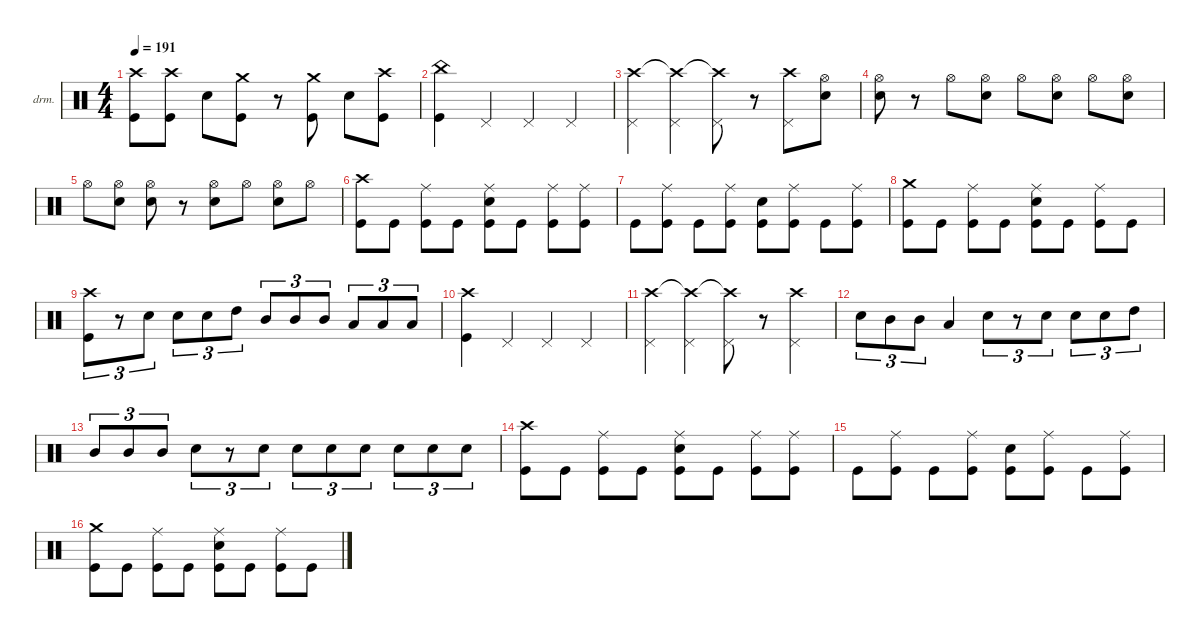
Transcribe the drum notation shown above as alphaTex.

\defaultSystemsLayout 4
\hideDynamics
\bracketExtendMode nobrackets
\firstSystemTrackNameOrientation horizontal
\otherSystemsTrackNameOrientation horizontal
\track ("Drumkit" "drm.") {instrument percussion}
\staff {score}
\articulation defaults
\ts (4 4)
\tempo 191
\clef neutral
\ks c
("Kick (hit)"{t} "Crash high (hit)").8{dy f beam Down} ("Crash high (hit)" "Kick (hit)").8{beam Down} "Snare (hit) 2".8{beam Down} ("Crash medium (hit)" "Kick (hit)").8{beam Down} r.8{beam Down} ("Crash medium (hit)" "Kick (hit)").8{beam Down} "Snare (hit) 2".8{beam Down} ("Crash high (hit)" "Kick (hit)").8{beam Down} |
("China (hit)" "Kick (hit)").4{beam Down} "Pedal Hi-Hat (hit)".4{beam Up} "Pedal Hi-Hat (hit)".4{beam Up} "Pedal Hi-Hat (hit)".4{beam Up} |
("Pedal Hi-Hat (hit)" "Crash high (hit)").4{beam Down} ("Pedal Hi-Hat (hit)" "Crash high (hit)"{t}).4{beam Down} ("Pedal Hi-Hat (hit)" "Crash high (hit)"{t}).8{beam Down} r.8{beam Down} ("Pedal Hi-Hat (hit)" "Crash high (hit)").8{beam Down} ("Hi-Hat (open)" "Snare (hit) 2").8{beam Down} |
("Hi-Hat (open)" "Snare (hit) 2").8{beam Down} r.8{beam Down} "Hi-Hat (open)".8{beam Down} ("Hi-Hat (open)" "Snare (hit) 2").8{beam Down} "Hi-Hat (open)".8{beam Down} ("Hi-Hat (open)" "Snare (hit) 2").8{beam Down} "Hi-Hat (open)".8{beam Down} ("Hi-Hat (open)" "Snare (hit) 2").8{beam Down} |
"Hi-Hat (open)".8{beam Down} ("Hi-Hat (open)" "Snare (hit) 2").8{beam Down} ("Hi-Hat (open)" "Snare (hit) 2").8{beam Down} r.8{beam Down} ("Hi-Hat (open)" "Snare (hit) 2").8{beam Down} "Hi-Hat (open)".8{beam Down} ("Hi-Hat (open)" "Snare (hit) 2").8{beam Down} "Hi-Hat (open)".8{beam Down} |
("Crash high (hit)" "Kick (hit)").8{beam Down} "Kick (hit)".8{beam Down} ("Ride (middle)" "Kick (hit)").8{dy mf beam Down} "Kick (hit)".8{dy f beam Down} ("Ride (middle)" "Snare (hit) 2" "Kick (hit)").8{beam Down} "Kick (hit)".8{beam Down} ("Ride (middle)" "Kick (hit)").8{beam Down} ("Ride (middle)" "Kick (hit)").8{beam Down} |
"Kick (hit)".8{beam Down} ("Ride (middle)" "Kick (hit)").8{beam Down} "Kick (hit)".8{beam Down} ("Ride (middle)" "Kick (hit)").8{beam Down} ("Snare (hit) 2" "Kick (hit)").8{beam Down} ("Ride (middle)" "Kick (hit)").8{beam Down} "Kick (hit)".8{beam Down} ("Ride (middle)" "Kick (hit)").8{beam Down} |
("Crash medium (hit)" "Kick (hit)").8{beam Down} "Kick (hit)".8{beam Down} ("Ride (middle)" "Kick (hit)").8{dy mf beam Down} "Kick (hit)".8{dy f beam Down} ("Ride (middle)" "Snare (hit) 2" "Kick (hit)").8{dy mf beam Down} "Kick (hit)".8{dy f beam Down} ("Ride (middle)" "Kick (hit)").8{dy mf beam Down} "Kick (hit)".8{dy f beam Down} |
("Crash high (hit)" "Kick (hit)").8{tu (3 2) beam Down} r.8{tu (3 2) beam Down} "Snare (hit) 2".8{tu (3 2) beam Down} "Snare (hit) 2".8{tu (3 2) beam Down} "Snare (hit) 2".8{tu (3 2) beam Down} "High Tom (hit)".8{tu (3 2) dy mf beam Down} "Mid Tom (hit)".8{tu (3 2) beam Up} "Mid Tom (hit)".8{tu (3 2) beam Up} "Mid Tom (hit)".8{tu (3 2) beam Up} "Low Tom (hit)".8{tu (3 2) beam Up} "Low Tom (hit)".8{tu (3 2) beam Up} "Low Tom (hit)".8{tu (3 2) beam Up} |
("Crash high (hit)" "Kick (hit)").4{dy f beam Down} "Pedal Hi-Hat (hit)".4{beam Up} "Pedal Hi-Hat (hit)".4{beam Up} "Pedal Hi-Hat (hit)".4{beam Up} |
("Pedal Hi-Hat (hit)" "Crash high (hit)").4{beam Down} ("Pedal Hi-Hat (hit)" "Crash high (hit)"{t}).4{beam Down} ("Pedal Hi-Hat (hit)" "Crash high (hit)"{t}).8{beam Down} r.8{beam Down} ("Pedal Hi-Hat (hit)" "Crash high (hit)").4{beam Down} |
"Snare (hit) 2".8{tu (3 2) beam Down} "Mid Tom (hit)".8{tu (3 2) beam Down} "Mid Tom (hit)".8{tu (3 2) beam Down} "Low Tom (hit)".4{beam Up} "Snare (hit) 2".8{tu (3 2) beam Down} r.8{tu (3 2) beam Down} "Snare (hit) 2".8{tu (3 2) beam Down} "Snare (hit) 2".8{tu (3 2) beam Down} "Snare (hit) 2".8{tu (3 2) beam Down} "High Tom (hit)".8{tu (3 2) beam Down} |
"Mid Tom (hit)".8{tu (3 2) beam Up} "Mid Tom (hit)".8{tu (3 2) beam Up} "Mid Tom (hit)".8{tu (3 2) beam Up} "Snare (hit) 2".8{tu (3 2) beam Down} r.8{tu (3 2) beam Down} "Snare (hit) 2".8{tu (3 2) beam Down} "Snare (hit) 2".8{tu (3 2) beam Down} "Snare (hit) 2".8{tu (3 2) dy mp beam Down} "Snare (hit) 2".8{tu (3 2) dy f beam Down} "Snare (hit) 2".8{tu (3 2) dy mp beam Down} "Snare (hit) 2".8{tu (3 2) dy f beam Down} "Snare (hit) 2".8{tu (3 2) beam Down} |
("Crash high (hit)" "Kick (hit)").8{beam Down} "Kick (hit)".8{beam Down} ("Ride (middle)" "Kick (hit)").8{dy mf beam Down} "Kick (hit)".8{dy f beam Down} ("Ride (middle)" "Snare (hit) 2" "Kick (hit)").8{beam Down} "Kick (hit)".8{beam Down} ("Ride (middle)" "Kick (hit)").8{beam Down} ("Ride (middle)" "Kick (hit)").8{beam Down} |
"Kick (hit)".8{beam Down} ("Ride (middle)" "Kick (hit)").8{beam Down} "Kick (hit)".8{beam Down} ("Ride (middle)" "Kick (hit)").8{beam Down} ("Snare (hit) 2" "Kick (hit)").8{beam Down} ("Ride (middle)" "Kick (hit)").8{beam Down} "Kick (hit)".8{beam Down} ("Ride (middle)" "Kick (hit)").8{beam Down} |
("Crash medium (hit)" "Kick (hit)").8{beam Down} "Kick (hit)".8{beam Down} ("Ride (middle)" "Kick (hit)").8{dy mf beam Down} "Kick (hit)".8{dy f beam Down} ("Ride (middle)" "Snare (hit) 2" "Kick (hit)").8{dy mf beam Down} "Kick (hit)".8{dy f beam Down} ("Ride (middle)" "Kick (hit)").8{dy mf beam Down} "Kick (hit)".8{dy f beam Down}
